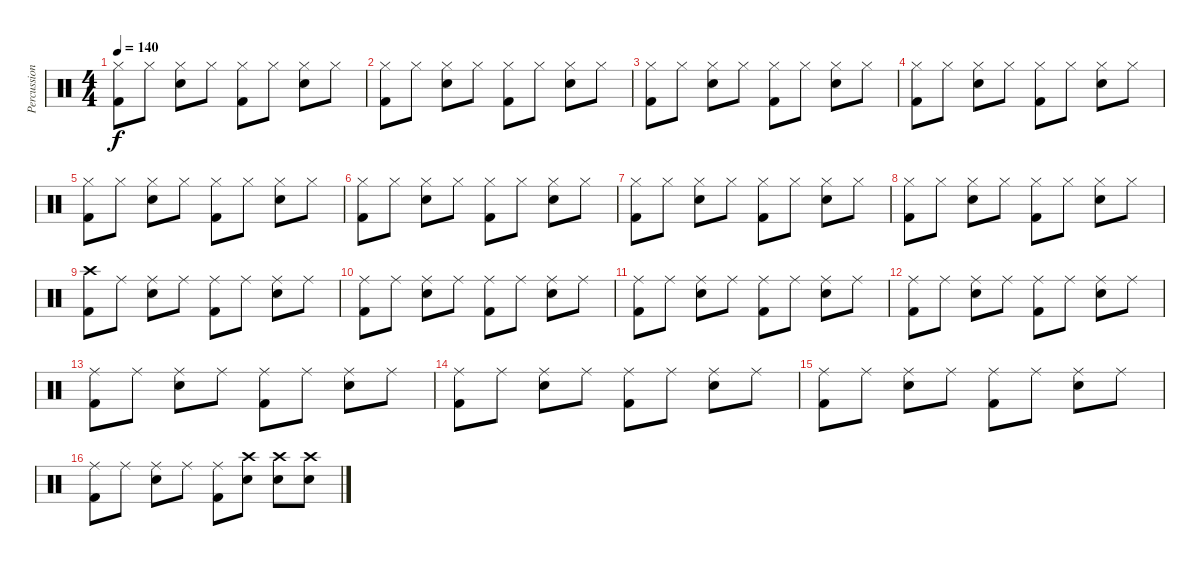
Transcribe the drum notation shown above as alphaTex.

\track ("Percussion" "Percussion") {instrument percussion}
\staff {score}
\articulation defaults
\ts (4 4)
\tempo 140
\clef neutral
\ks c
("Hi-Hat (closed)" "Kick (hit) 2").8{dy f} "Hi-Hat (closed)".8 ("Hi-Hat (closed)" "Snare (hit) 2").8 "Hi-Hat (closed)".8 ("Hi-Hat (closed)" "Kick (hit) 2").8 "Hi-Hat (closed)".8 ("Hi-Hat (closed)" "Snare (hit) 2").8 "Hi-Hat (closed)".8 |
("Hi-Hat (closed)" "Kick (hit) 2").8 "Hi-Hat (closed)".8 ("Hi-Hat (closed)" "Snare (hit) 2").8 "Hi-Hat (closed)".8 ("Hi-Hat (closed)" "Kick (hit) 2").8 "Hi-Hat (closed)".8 ("Hi-Hat (closed)" "Snare (hit) 2").8 "Hi-Hat (closed)".8 |
("Hi-Hat (closed)" "Kick (hit) 2").8 "Hi-Hat (closed)".8 ("Hi-Hat (closed)" "Snare (hit) 2").8 "Hi-Hat (closed)".8 ("Hi-Hat (closed)" "Kick (hit) 2").8 "Hi-Hat (closed)".8 ("Hi-Hat (closed)" "Snare (hit) 2").8 "Hi-Hat (closed)".8 |
("Hi-Hat (closed)" "Kick (hit) 2").8 "Hi-Hat (closed)".8 ("Hi-Hat (closed)" "Snare (hit) 2").8 "Hi-Hat (closed)".8 ("Hi-Hat (closed)" "Kick (hit) 2").8 "Hi-Hat (closed)".8 ("Hi-Hat (closed)" "Snare (hit) 2").8 "Hi-Hat (closed)".8 |
("Hi-Hat (closed)" "Kick (hit) 2").8 "Hi-Hat (closed)".8 ("Hi-Hat (closed)" "Snare (hit) 2").8 "Hi-Hat (closed)".8 ("Hi-Hat (closed)" "Kick (hit) 2").8 "Hi-Hat (closed)".8 ("Hi-Hat (closed)" "Snare (hit) 2").8 "Hi-Hat (closed)".8 |
("Hi-Hat (closed)" "Kick (hit) 2").8 "Hi-Hat (closed)".8 ("Hi-Hat (closed)" "Snare (hit) 2").8 "Hi-Hat (closed)".8 ("Hi-Hat (closed)" "Kick (hit) 2").8 "Hi-Hat (closed)".8 ("Hi-Hat (closed)" "Snare (hit) 2").8 "Hi-Hat (closed)".8 |
("Hi-Hat (closed)" "Kick (hit) 2").8 "Hi-Hat (closed)".8 ("Hi-Hat (closed)" "Snare (hit) 2").8 "Hi-Hat (closed)".8 ("Hi-Hat (closed)" "Kick (hit) 2").8 "Hi-Hat (closed)".8 ("Hi-Hat (closed)" "Snare (hit) 2").8 "Hi-Hat (closed)".8 |
("Hi-Hat (closed)" "Kick (hit) 2").8 "Hi-Hat (closed)".8 ("Hi-Hat (closed)" "Snare (hit) 2").8 "Hi-Hat (closed)".8 ("Hi-Hat (closed)" "Kick (hit) 2").8 "Hi-Hat (closed)".8 ("Hi-Hat (closed)" "Snare (hit) 2").8 "Hi-Hat (closed)".8 |
("Crash high (hit)" "Kick (hit) 2").8 "Ride (middle)".8 ("Ride (middle)" "Snare (hit) 2").8 "Ride (middle)".8 ("Ride (middle)" "Kick (hit) 2").8 "Ride (middle)".8 ("Ride (middle)" "Snare (hit) 2").8 "Ride (middle)".8 |
("Ride (middle)" "Kick (hit) 2").8 "Ride (middle)".8 ("Ride (middle)" "Snare (hit) 2").8 "Ride (middle)".8 ("Ride (middle)" "Kick (hit) 2").8 "Ride (middle)".8 ("Ride (middle)" "Snare (hit) 2").8 "Ride (middle)".8 |
("Ride (middle)" "Kick (hit) 2").8 "Ride (middle)".8 ("Ride (middle)" "Snare (hit) 2").8 "Ride (middle)".8 ("Ride (middle)" "Kick (hit) 2").8 "Ride (middle)".8 ("Ride (middle)" "Snare (hit) 2").8 "Ride (middle)".8 |
("Ride (middle)" "Kick (hit) 2").8 "Ride (middle)".8 ("Ride (middle)" "Snare (hit) 2").8 "Ride (middle)".8 ("Ride (middle)" "Kick (hit) 2").8 "Ride (middle)".8 ("Ride (middle)" "Snare (hit) 2").8 "Ride (middle)".8 |
("Ride (middle)" "Kick (hit) 2").8 "Ride (middle)".8 ("Ride (middle)" "Snare (hit) 2").8 "Ride (middle)".8 ("Ride (middle)" "Kick (hit) 2").8 "Ride (middle)".8 ("Ride (middle)" "Snare (hit) 2").8 "Ride (middle)".8 |
("Ride (middle)" "Kick (hit) 2").8 "Ride (middle)".8 ("Ride (middle)" "Snare (hit) 2").8 "Ride (middle)".8 ("Ride (middle)" "Kick (hit) 2").8 "Ride (middle)".8 ("Ride (middle)" "Snare (hit) 2").8 "Ride (middle)".8 |
("Ride (middle)" "Kick (hit) 2").8 "Ride (middle)".8 ("Ride (middle)" "Snare (hit) 2").8 "Ride (middle)".8 ("Ride (middle)" "Kick (hit) 2").8 "Ride (middle)".8 ("Ride (middle)" "Snare (hit) 2").8 "Ride (middle)".8 |
("Ride (middle)" "Kick (hit) 2").8 "Ride (middle)".8 ("Ride (middle)" "Snare (hit) 2").8 "Ride (middle)".8 ("Ride (middle)" "Kick (hit) 2").8 ("Crash high (hit)" "Snare (hit) 2").8 ("Crash high (hit)" "Snare (hit) 2").8 ("Crash high (hit)" "Snare (hit) 2").8
